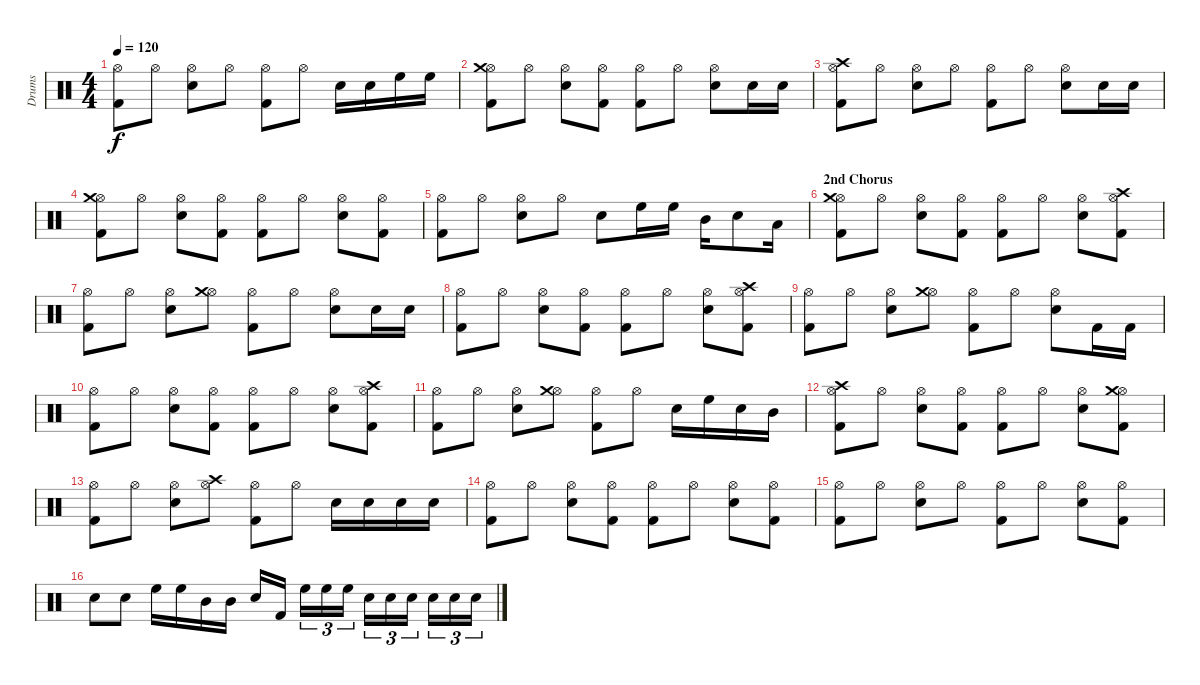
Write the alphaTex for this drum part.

\track ("Drums" "Drums") {instrument percussion}
\staff {score}
\articulation defaults
\ts (4 4)
\tempo 120
\clef neutral
\ks c
("Hi-Hat (open)" "Kick (hit) 2").8{dy f} "Hi-Hat (open)".8 ("Hi-Hat (open)" "Electric Snare (hit)").8 "Hi-Hat (open)".8 ("Hi-Hat (open)" "Kick (hit) 2").8 "Hi-Hat (open)".8 "Snare (hit) 2".16 "Snare (hit) 2".16 "High Floor Tom (hit)".16 "High Floor Tom (hit)".16 |
("Hi-Hat (open)" "Crash medium (hit)" "Kick (hit) 2").8 "Hi-Hat (open)".8 ("Hi-Hat (open)" "Electric Snare (hit)").8 ("Hi-Hat (open)" "Kick (hit) 2").8 ("Hi-Hat (open)" "Kick (hit) 2").8 "Hi-Hat (open)".8 ("Hi-Hat (open)" "Electric Snare (hit)").8 "Snare (hit) 2".16 "Snare (hit) 2".16 |
("Hi-Hat (open)" "Crash high (hit)" "Kick (hit) 2").8 "Hi-Hat (open)".8 ("Hi-Hat (open)" "Electric Snare (hit)").8 "Hi-Hat (open)".8 ("Hi-Hat (open)" "Kick (hit) 2").8 "Hi-Hat (open)".8 ("Hi-Hat (open)" "Electric Snare (hit)").8 "Snare (hit) 2".16 "Snare (hit) 2".16 |
("Hi-Hat (open)" "Crash medium (hit)" "Kick (hit) 2").8 "Hi-Hat (open)".8 ("Hi-Hat (open)" "Electric Snare (hit)").8 ("Hi-Hat (open)" "Kick (hit) 2").8 ("Hi-Hat (open)" "Kick (hit) 2").8 "Hi-Hat (open)".8 ("Hi-Hat (open)" "Electric Snare (hit)").8 ("Hi-Hat (open)" "Kick (hit) 2").8 |
("Hi-Hat (open)" "Kick (hit) 2").8 "Hi-Hat (open)".8 ("Hi-Hat (open)" "Electric Snare (hit)").8 "Hi-Hat (open)".8 "Snare (hit) 2".8 "High Floor Tom (hit)".16 "High Floor Tom (hit)".16 "Mid Tom (hit)".16 "Snare (hit) 2".8 "Low Floor Tom (hit)".16 |
\section ("" "2nd Chorus")
("Hi-Hat (open)" "Crash medium (hit)" "Kick (hit) 2").8 "Hi-Hat (open)".8 ("Hi-Hat (open)" "Electric Snare (hit)").8 ("Hi-Hat (open)" "Kick (hit) 2").8 ("Hi-Hat (open)" "Kick (hit) 2").8 "Hi-Hat (open)".8 ("Hi-Hat (open)" "Electric Snare (hit)").8 ("Hi-Hat (open)" "Crash high (hit)" "Kick (hit) 2").8 |
("Hi-Hat (open)" "Kick (hit) 2").8 "Hi-Hat (open)".8 ("Hi-Hat (open)" "Electric Snare (hit)").8 ("Hi-Hat (open)" "Crash medium (hit)").8 ("Hi-Hat (open)" "Kick (hit) 2").8 "Hi-Hat (open)".8 ("Hi-Hat (open)" "Electric Snare (hit)").8 "Snare (hit) 2".16 "Snare (hit) 2".16 |
("Hi-Hat (open)" "Kick (hit) 2").8 "Hi-Hat (open)".8 ("Hi-Hat (open)" "Electric Snare (hit)").8 ("Hi-Hat (open)" "Kick (hit) 2").8 ("Hi-Hat (open)" "Kick (hit) 2").8 "Hi-Hat (open)".8 ("Hi-Hat (open)" "Electric Snare (hit)").8 ("Hi-Hat (open)" "Crash high (hit)" "Kick (hit) 2").8 |
("Hi-Hat (open)" "Kick (hit) 2").8 "Hi-Hat (open)".8 ("Hi-Hat (open)" "Electric Snare (hit)").8 ("Hi-Hat (open)" "Crash medium (hit)").8 ("Hi-Hat (open)" "Kick (hit) 2").8 "Hi-Hat (open)".8 ("Hi-Hat (open)" "Electric Snare (hit)").8 "Kick (hit) 2".16 "Kick (hit) 2".16 |
("Hi-Hat (open)" "Kick (hit) 2").8 "Hi-Hat (open)".8 ("Hi-Hat (open)" "Electric Snare (hit)").8 ("Hi-Hat (open)" "Kick (hit) 2").8 ("Hi-Hat (open)" "Kick (hit) 2").8 "Hi-Hat (open)".8 ("Hi-Hat (open)" "Electric Snare (hit)").8 ("Hi-Hat (open)" "Crash high (hit)" "Kick (hit) 2").8 |
("Hi-Hat (open)" "Kick (hit) 2").8 "Hi-Hat (open)".8 ("Hi-Hat (open)" "Electric Snare (hit)").8 ("Hi-Hat (open)" "Crash medium (hit)").8 ("Hi-Hat (open)" "Kick (hit) 2").8 "Hi-Hat (open)".8 "Snare (hit) 2".16 "High Floor Tom (hit)".16 "Snare (hit) 2".16 "Mid Tom (hit)".16 |
("Hi-Hat (open)" "Crash high (hit)" "Kick (hit) 2").8 "Hi-Hat (open)".8 ("Hi-Hat (open)" "Electric Snare (hit)").8 ("Hi-Hat (open)" "Kick (hit) 2").8 ("Hi-Hat (open)" "Kick (hit) 2").8 "Hi-Hat (open)".8 ("Hi-Hat (open)" "Electric Snare (hit)").8 ("Hi-Hat (open)" "Crash medium (hit)" "Kick (hit) 2").8 |
("Hi-Hat (open)" "Kick (hit) 2").8 "Hi-Hat (open)".8 ("Hi-Hat (open)" "Electric Snare (hit)").8 ("Hi-Hat (open)" "Crash high (hit)").8 ("Hi-Hat (open)" "Kick (hit) 2").8 "Hi-Hat (open)".8 "Electric Snare (hit)".16 "Electric Snare (hit)".16 "Electric Snare (hit)".16 "Electric Snare (hit)".16 |
("Hi-Hat (open)" "Kick (hit) 2").8 "Hi-Hat (open)".8 ("Hi-Hat (open)" "Electric Snare (hit)").8 ("Hi-Hat (open)" "Kick (hit) 2").8 ("Hi-Hat (open)" "Kick (hit) 2").8 "Hi-Hat (open)".8 ("Hi-Hat (open)" "Electric Snare (hit)").8 ("Hi-Hat (open)" "Kick (hit) 2").8 |
("Hi-Hat (open)" "Kick (hit) 2").8 "Hi-Hat (open)".8 ("Hi-Hat (open)" "Electric Snare (hit)").8 "Hi-Hat (open)".8 ("Hi-Hat (open)" "Kick (hit) 2").8 "Hi-Hat (open)".8 ("Hi-Hat (open)" "Electric Snare (hit)").8 ("Hi-Hat (open)" "Kick (hit) 2").8 |
"Snare (hit) 2".8 "Snare (hit) 2".8 "High Floor Tom (hit)".16 "High Floor Tom (hit)".16 "Mid Tom (hit)".16 "Mid Tom (hit)".16 "Snare (hit) 2".16 "Kick (hit) 2".16 "High Floor Tom (hit)".16{tu (3 2)} "High Floor Tom (hit)".16{tu (3 2)} "High Floor Tom (hit)".16{tu (3 2)} "Snare (hit) 2".16{tu (3 2)} "Snare (hit) 2".16{tu (3 2)} "Snare (hit) 2".16{tu (3 2)} "Snare (hit) 2".16{tu (3 2)} "Snare (hit) 2".16{tu (3 2)} "Snare (hit) 2".16{tu (3 2)}
